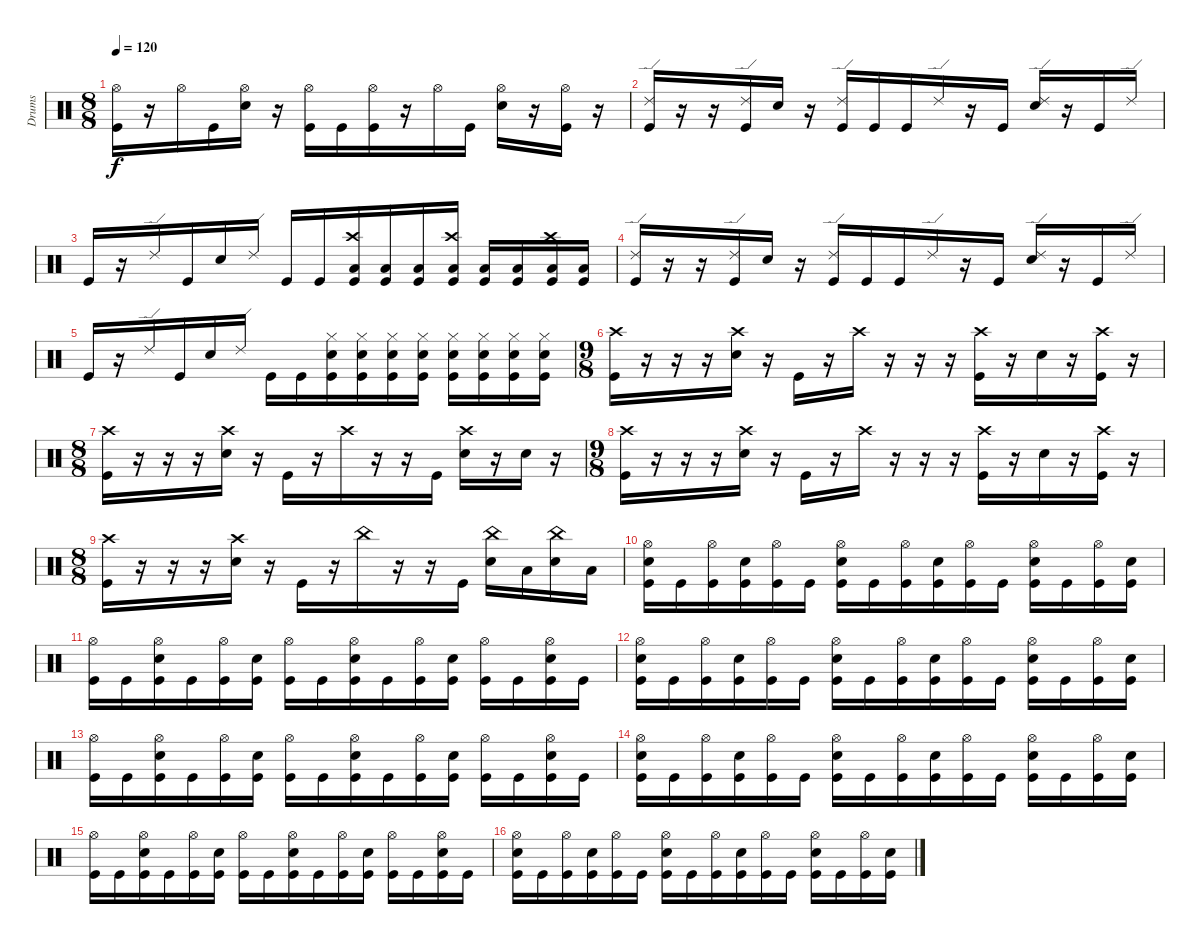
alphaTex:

\track ("Drums" "Drums") {instrument percussion}
\staff {score}
\articulation defaults
\ts (8 8)
\tempo 120
\clef neutral
\ks c
("Hi-Hat (open)" "Kick (hit)").16{dy f} r.16 "Hi-Hat (open)".16 "Kick (hit)".16 ("Hi-Hat (open)" "Electric Snare (hit)").16 r.16 ("Hi-Hat (open)" "Kick (hit)").16 "Kick (hit)".16 ("Hi-Hat (open)" "Kick (hit)").16 r.16 "Hi-Hat (open)".16 "Kick (hit)".16 ("Hi-Hat (open)" "Electric Snare (hit)").16 r.16 ("Hi-Hat (open)" "Kick (hit)").16 r.16 |
("Ride (edge) 2" "Kick (hit)").16 r.16 r.16 ("Ride (edge) 2" "Kick (hit)").16 "Electric Snare (hit)".16 r.16 ("Ride (edge) 2" "Kick (hit)").16 "Kick (hit)".16 "Kick (hit)".16 "Ride (edge) 2".16 r.16 "Kick (hit)".16 ("Ride (edge) 2" "Electric Snare (hit)").16 r.16 "Kick (hit)".16 "Ride (edge) 2".16 |
"Kick (hit)".16 r.16 "Ride (edge) 2".16 "Kick (hit)".16 "Electric Snare (hit)".16 "Ride (edge) 2".16 "Kick (hit)".16 "Kick (hit)".16 ("Crash high (hit)" "Low Floor Tom (hit)" "Kick (hit)").16 ("Low Floor Tom (hit)" "Kick (hit)").16 ("Low Tom (hit)" "Kick (hit)").16 ("Crash high (hit)" "Low Tom (hit)" "Kick (hit)").16 ("Low Tom (hit)" "Kick (hit)").16 ("Low Floor Tom (hit)" "Kick (hit)").16 ("Crash high (hit)" "Low Floor Tom (hit)" "Kick (hit)").16 ("Low Floor Tom (hit)" "Kick (hit)").16 |
("Ride (edge) 2" "Kick (hit)").16 r.16 r.16 ("Ride (edge) 2" "Kick (hit)").16 "Electric Snare (hit)".16 r.16 ("Ride (edge) 2" "Kick (hit)").16 "Kick (hit)".16 "Kick (hit)".16 "Ride (edge) 2".16 r.16 "Kick (hit)".16 ("Ride (edge) 2" "Electric Snare (hit)").16 r.16 "Kick (hit)".16 "Ride (edge) 2".16 |
"Kick (hit)".16 r.16 "Ride (edge) 2".16 "Kick (hit)".16 "Electric Snare (hit)".16 "Ride (edge) 2".16 "Kick (hit)".16 "Kick (hit)".16 ("Hi-Hat (closed)" "Electric Snare (hit)" "Kick (hit)").16 ("Hi-Hat (closed)" "Electric Snare (hit)" "Kick (hit)").16 ("Hi-Hat (closed)" "Electric Snare (hit)" "Kick (hit)").16 ("Hi-Hat (closed)" "Electric Snare (hit)" "Kick (hit)").16 ("Hi-Hat (closed)" "Electric Snare (hit)" "Kick (hit)").16 ("Hi-Hat (closed)" "Electric Snare (hit)" "Kick (hit)").16 ("Hi-Hat (closed)" "Electric Snare (hit)" "Kick (hit)").16 ("Hi-Hat (closed)" "Electric Snare (hit)" "Kick (hit)").16 |
\ts (9 8)
("Crash high (hit)" "Kick (hit)").16 r.16 r.16 r.16 ("Crash high (hit)" "Electric Snare (hit)").16 r.16 "Kick (hit)".16 r.16 "Crash high (hit)".16 r.16 r.16 r.16 ("Crash high (hit)" "Kick (hit)").16 r.16 "Electric Snare (hit)".16 r.16 ("Crash high (hit)" "Kick (hit)").16 r.16 |
\ts (8 8)
("Crash high (hit)" "Kick (hit)").16 r.16 r.16 r.16 ("Crash high (hit)" "Electric Snare (hit)").16 r.16 "Kick (hit)".16 r.16 "Crash high (hit)".16 r.16 r.16 "Kick (hit)".16 ("Crash high (hit)" "Electric Snare (hit)").16 r.16 "Electric Snare (hit)".16 r.16 |
\ts (9 8)
("Crash high (hit)" "Kick (hit)").16 r.16 r.16 r.16 ("Crash high (hit)" "Electric Snare (hit)").16 r.16 "Kick (hit)".16 r.16 "Crash high (hit)".16 r.16 r.16 r.16 ("Crash high (hit)" "Kick (hit)").16 r.16 "Electric Snare (hit)".16 r.16 ("Crash high (hit)" "Kick (hit)").16 r.16 |
\ts (8 8)
("Crash high (hit)" "Kick (hit)").16 r.16 r.16 r.16 ("Crash high (hit)" "Electric Snare (hit)").16 r.16 "Kick (hit)".16 r.16 "China (hit)".16 r.16 r.16 "Kick (hit)".16 ("China (hit)" "Electric Snare (hit)").16 "Low Floor Tom (hit)".16 ("China (hit)" "Electric Snare (hit)").16 "Low Floor Tom (hit)".16 |
("Hi-Hat (open)" "Electric Snare (hit)" "Kick (hit)").16 "Kick (hit)".16 ("Hi-Hat (open)" "Kick (hit)").16 ("Electric Snare (hit)" "Kick (hit)").16 ("Hi-Hat (open)" "Kick (hit)").16 "Kick (hit)".16 ("Hi-Hat (open)" "Electric Snare (hit)" "Kick (hit)").16 "Kick (hit)".16 ("Hi-Hat (open)" "Kick (hit)").16 ("Electric Snare (hit)" "Kick (hit)").16 ("Hi-Hat (open)" "Kick (hit)").16 "Kick (hit)".16 ("Hi-Hat (open)" "Electric Snare (hit)" "Kick (hit)").16 "Kick (hit)".16 ("Hi-Hat (open)" "Kick (hit)").16 ("Electric Snare (hit)" "Kick (hit)").16 |
("Hi-Hat (open)" "Kick (hit)").16 "Kick (hit)".16 ("Hi-Hat (open)" "Electric Snare (hit)" "Kick (hit)").16 "Kick (hit)".16 ("Hi-Hat (open)" "Kick (hit)").16 ("Electric Snare (hit)" "Kick (hit)").16 ("Hi-Hat (open)" "Kick (hit)").16 "Kick (hit)".16 ("Hi-Hat (open)" "Electric Snare (hit)" "Kick (hit)").16 "Kick (hit)".16 ("Hi-Hat (open)" "Kick (hit)").16 ("Electric Snare (hit)" "Kick (hit)").16 ("Hi-Hat (open)" "Kick (hit)").16 "Kick (hit)".16 ("Hi-Hat (open)" "Electric Snare (hit)" "Kick (hit)").16 "Kick (hit)".16 |
("Hi-Hat (open)" "Electric Snare (hit)" "Kick (hit)").16 "Kick (hit)".16 ("Hi-Hat (open)" "Kick (hit)").16 ("Electric Snare (hit)" "Kick (hit)").16 ("Hi-Hat (open)" "Kick (hit)").16 "Kick (hit)".16 ("Hi-Hat (open)" "Electric Snare (hit)" "Kick (hit)").16 "Kick (hit)".16 ("Hi-Hat (open)" "Kick (hit)").16 ("Electric Snare (hit)" "Kick (hit)").16 ("Hi-Hat (open)" "Kick (hit)").16 "Kick (hit)".16 ("Hi-Hat (open)" "Electric Snare (hit)" "Kick (hit)").16 "Kick (hit)".16 ("Hi-Hat (open)" "Kick (hit)").16 ("Electric Snare (hit)" "Kick (hit)").16 |
("Hi-Hat (open)" "Kick (hit)").16 "Kick (hit)".16 ("Hi-Hat (open)" "Electric Snare (hit)" "Kick (hit)").16 "Kick (hit)".16 ("Hi-Hat (open)" "Kick (hit)").16 ("Electric Snare (hit)" "Kick (hit)").16 ("Hi-Hat (open)" "Kick (hit)").16 "Kick (hit)".16 ("Hi-Hat (open)" "Electric Snare (hit)" "Kick (hit)").16 "Kick (hit)".16 ("Hi-Hat (open)" "Kick (hit)").16 ("Electric Snare (hit)" "Kick (hit)").16 ("Hi-Hat (open)" "Kick (hit)").16 "Kick (hit)".16 ("Hi-Hat (open)" "Electric Snare (hit)" "Kick (hit)").16 "Kick (hit)".16 |
("Hi-Hat (open)" "Electric Snare (hit)" "Kick (hit)").16 "Kick (hit)".16 ("Hi-Hat (open)" "Kick (hit)").16 ("Electric Snare (hit)" "Kick (hit)").16 ("Hi-Hat (open)" "Kick (hit)").16 "Kick (hit)".16 ("Hi-Hat (open)" "Electric Snare (hit)" "Kick (hit)").16 "Kick (hit)".16 ("Hi-Hat (open)" "Kick (hit)").16 ("Electric Snare (hit)" "Kick (hit)").16 ("Hi-Hat (open)" "Kick (hit)").16 "Kick (hit)".16 ("Hi-Hat (open)" "Electric Snare (hit)" "Kick (hit)").16 "Kick (hit)".16 ("Hi-Hat (open)" "Kick (hit)").16 ("Electric Snare (hit)" "Kick (hit)").16 |
("Hi-Hat (open)" "Kick (hit)").16 "Kick (hit)".16 ("Hi-Hat (open)" "Electric Snare (hit)" "Kick (hit)").16 "Kick (hit)".16 ("Hi-Hat (open)" "Kick (hit)").16 ("Electric Snare (hit)" "Kick (hit)").16 ("Hi-Hat (open)" "Kick (hit)").16 "Kick (hit)".16 ("Hi-Hat (open)" "Electric Snare (hit)" "Kick (hit)").16 "Kick (hit)".16 ("Hi-Hat (open)" "Kick (hit)").16 ("Electric Snare (hit)" "Kick (hit)").16 ("Hi-Hat (open)" "Kick (hit)").16 "Kick (hit)".16 ("Hi-Hat (open)" "Electric Snare (hit)" "Kick (hit)").16 "Kick (hit)".16 |
("Hi-Hat (open)" "Electric Snare (hit)" "Kick (hit)").16 "Kick (hit)".16 ("Hi-Hat (open)" "Kick (hit)").16 ("Electric Snare (hit)" "Kick (hit)").16 ("Hi-Hat (open)" "Kick (hit)").16 "Kick (hit)".16 ("Hi-Hat (open)" "Electric Snare (hit)" "Kick (hit)").16 "Kick (hit)".16 ("Hi-Hat (open)" "Kick (hit)").16 ("Electric Snare (hit)" "Kick (hit)").16 ("Hi-Hat (open)" "Kick (hit)").16 "Kick (hit)".16 ("Hi-Hat (open)" "Electric Snare (hit)" "Kick (hit)").16 "Kick (hit)".16 ("Hi-Hat (open)" "Kick (hit)").16 ("Electric Snare (hit)" "Kick (hit)").16
